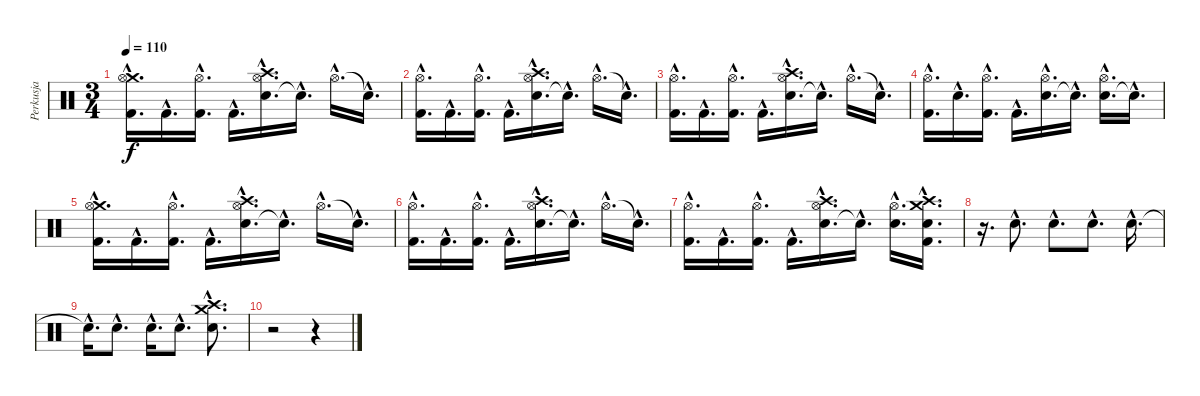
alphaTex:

\track ("Perkusja" "Perkusja") {instrument percussion}
\staff {score}
\articulation defaults
\ts (3 4)
\tempo 110
\clef neutral
\ks c
("Kick (hit) 2"{hac} "Crash medium (hit)"{hac} "Hi-Hat (open)"{hac}).16{d dy f} "Kick (hit) 2"{hac}.16{d} ("Kick (hit) 2"{hac} "Hi-Hat (open)"{hac}).16{d} "Kick (hit) 2"{hac}.16{d} ("Electric Snare (hit)"{hac} "Crash high (hit)"{hac} "Hi-Hat (open)"{hac}).16{d} "Snare (hit)"{hac t}.16{d} "Hi-Hat (open)"{hac}.16{d} "Snare (hit)"{hac t}.16{d} |
("Kick (hit) 2"{hac} "Hi-Hat (open)"{hac}).16{d} "Kick (hit) 2"{hac}.16{d} ("Kick (hit) 2"{hac} "Hi-Hat (open)"{hac}).16{d} "Kick (hit) 2"{hac}.16{d} ("Electric Snare (hit)"{hac} "Crash high (hit)"{hac} "Hi-Hat (open)"{hac}).16{d} "Snare (hit)"{hac t}.16{d} "Hi-Hat (open)"{hac}.16{d} "Snare (hit)"{hac t}.16{d} |
("Kick (hit) 2"{hac} "Hi-Hat (open)"{hac}).16{d} "Kick (hit) 2"{hac}.16{d} ("Kick (hit) 2"{hac} "Hi-Hat (open)"{hac}).16{d} "Kick (hit) 2"{hac}.16{d} ("Electric Snare (hit)"{hac} "Crash high (hit)"{hac} "Hi-Hat (open)"{hac}).16{d} "Snare (hit)"{hac t}.16{d} "Hi-Hat (open)"{hac}.16{d} "Snare (hit)"{hac t}.16{d} |
("Kick (hit) 2"{hac} "Hi-Hat (open)"{hac}).16{d} "Electric Snare (hit)"{hac}.16{d} ("Kick (hit) 2"{hac} "Hi-Hat (open)"{hac}).16{d} "Kick (hit) 2"{hac}.16{d} ("Electric Snare (hit)"{hac} "Hi-Hat (open)"{hac}).16{d} "Snare (hit)"{hac t}.16{d} ("Electric Snare (hit)"{hac} "Hi-Hat (open)"{hac}).16{d} "Snare (hit)"{hac t}.16{d} |
("Kick (hit) 2"{hac} "Crash medium (hit)"{hac} "Hi-Hat (open)"{hac}).16{d} "Kick (hit) 2"{hac}.16{d} ("Kick (hit) 2"{hac} "Hi-Hat (open)"{hac}).16{d} "Kick (hit) 2"{hac}.16{d} ("Electric Snare (hit)"{hac} "Crash high (hit)"{hac} "Hi-Hat (open)"{hac}).16{d} "Snare (hit)"{hac t}.16{d} "Hi-Hat (open)"{hac}.16{d} "Snare (hit)"{hac t}.16{d} |
("Kick (hit) 2"{hac} "Hi-Hat (open)"{hac}).16{d} "Kick (hit) 2"{hac}.16{d} ("Kick (hit) 2"{hac} "Hi-Hat (open)"{hac}).16{d} "Kick (hit) 2"{hac}.16{d} ("Electric Snare (hit)"{hac} "Crash high (hit)"{hac} "Hi-Hat (open)"{hac}).16{d} "Snare (hit)"{hac t}.16{d} "Hi-Hat (open)"{hac}.16{d} "Snare (hit)"{hac t}.16{d} |
("Kick (hit) 2"{hac} "Hi-Hat (open)"{hac}).16{d} "Kick (hit) 2"{hac}.16{d} ("Kick (hit) 2"{hac} "Hi-Hat (open)"{hac}).16{d} "Kick (hit) 2"{hac}.16{d} ("Electric Snare (hit)"{hac} "Crash high (hit)"{hac} "Hi-Hat (open)"{hac}).16{d} "Snare (hit)"{hac t}.16{d} ("Electric Snare (hit)"{hac} "Hi-Hat (open)"{hac}).16{d} ("Crash medium (hit)"{hac} "Crash high (hit)"{hac} "Kick (hit) 2"{hac} "Snare (hit)"{hac}).16{d} |
r.16{d} "Snare (hit) 2"{hac}.8{d} "Snare (hit) 2"{hac}.8{d} "Snare (hit) 2"{hac}.8{d} "Snare (hit) 2"{hac}.16{d} |
"Snare (hit)"{hac t}.16{d} "Snare (hit) 2"{hac}.8{d} "Electric Snare (hit)"{hac}.16{d} "Electric Snare (hit)"{hac}.8{d} ("Crash medium (hit)"{hac} "Crash high (hit)"{hac} "Snare (hit) 2"{hac}).8{d} |
r.2 r.4
